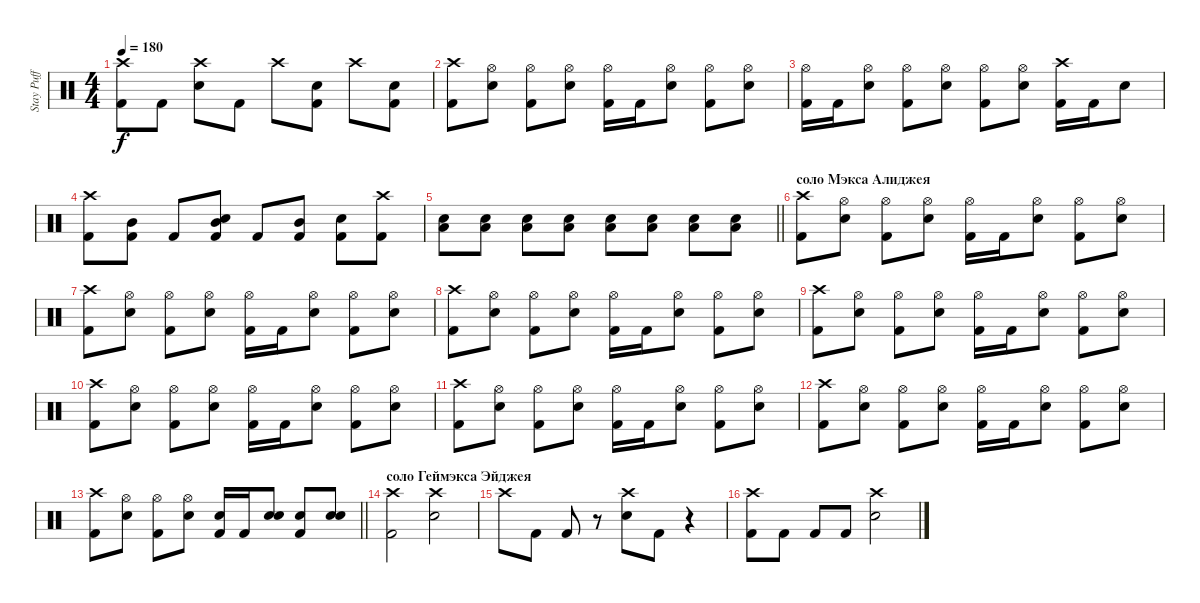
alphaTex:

\track ("Stay Puff" "Stay Puff") {instrument percussion}
\staff {score}
\articulation defaults
\ts (4 4)
\tempo 180
\clef neutral
\ks c
("Crash high (hit)" "Kick (hit) 2").8{dy f} "Kick (hit) 2".8 ("Crash high (hit)" "Snare (hit) 2").8 "Kick (hit) 2".8 "Crash high (hit)".8 ("Snare (hit) 2" "Kick (hit) 2").8 "Crash high (hit)".8 ("Snare (hit) 2" "Kick (hit) 2").8 |
("Crash high (hit)" "Kick (hit) 2").8 ("Hi-Hat (open)" "Snare (hit) 2").8 ("Hi-Hat (open)" "Kick (hit) 2").8 ("Hi-Hat (open)" "Snare (hit) 2").8 ("Hi-Hat (open)" "Kick (hit) 2").16 "Kick (hit) 2".16 ("Hi-Hat (open)" "Snare (hit) 2").8 ("Hi-Hat (open)" "Kick (hit) 2").8 ("Hi-Hat (open)" "Snare (hit) 2").8 |
("Hi-Hat (open)" "Kick (hit) 2").16 "Kick (hit) 2".16 ("Hi-Hat (open)" "Snare (hit) 2").8 ("Hi-Hat (open)" "Kick (hit) 2").8 ("Hi-Hat (open)" "Snare (hit) 2").8 ("Hi-Hat (open)" "Kick (hit) 2").8 ("Hi-Hat (open)" "Snare (hit) 2").8 ("Crash high (hit)" "Kick (hit) 2").16 "Kick (hit) 2".16 "Snare (hit) 2".8 |
("Crash high (hit)" "Kick (hit) 2").8 ("Mid Tom (hit)" "Kick (hit) 2").8 "Kick (hit) 2".8 ("Mid Tom (hit)" "Snare (hit) 2" "Kick (hit) 2").8 "Kick (hit) 2".8 ("Mid Tom (hit)" "Kick (hit) 2").8 ("Snare (hit) 2" "Kick (hit) 2").8 ("Crash high (hit)" "Kick (hit) 2").8 |
\barLineRight lightlight
("Electric Snare (hit)" "Low Tom (hit)").8 ("Electric Snare (hit)" "Low Tom (hit)").8 ("Electric Snare (hit)" "Low Tom (hit)").8 ("Electric Snare (hit)" "Low Tom (hit)").8 ("Electric Snare (hit)" "Low Tom (hit)").8 ("Electric Snare (hit)" "Low Tom (hit)").8 ("Electric Snare (hit)" "Low Tom (hit)").8 ("Electric Snare (hit)" "Low Tom (hit)").8 |
\section ("" "соло Мэкса Алиджея")
("Crash high (hit)" "Kick (hit) 2").8 ("Hi-Hat (open)" "Snare (hit) 2").8 ("Hi-Hat (open)" "Kick (hit) 2").8 ("Hi-Hat (open)" "Snare (hit) 2").8 ("Hi-Hat (open)" "Kick (hit) 2").16 "Kick (hit) 2".16 ("Hi-Hat (open)" "Snare (hit) 2").8 ("Hi-Hat (open)" "Kick (hit) 2").8 ("Hi-Hat (open)" "Snare (hit) 2").8 |
("Crash high (hit)" "Kick (hit) 2").8 ("Hi-Hat (open)" "Snare (hit) 2").8 ("Hi-Hat (open)" "Kick (hit) 2").8 ("Hi-Hat (open)" "Snare (hit) 2").8 ("Hi-Hat (open)" "Kick (hit) 2").16 "Kick (hit) 2".16 ("Hi-Hat (open)" "Snare (hit) 2").8 ("Hi-Hat (open)" "Kick (hit) 2").8 ("Hi-Hat (open)" "Snare (hit) 2").8 |
("Crash high (hit)" "Kick (hit) 2").8 ("Hi-Hat (open)" "Snare (hit) 2").8 ("Hi-Hat (open)" "Kick (hit) 2").8 ("Hi-Hat (open)" "Snare (hit) 2").8 ("Hi-Hat (open)" "Kick (hit) 2").16 "Kick (hit) 2".16 ("Hi-Hat (open)" "Snare (hit) 2").8 ("Hi-Hat (open)" "Kick (hit) 2").8 ("Hi-Hat (open)" "Snare (hit) 2").8 |
("Crash high (hit)" "Kick (hit) 2").8 ("Hi-Hat (open)" "Snare (hit) 2").8 ("Hi-Hat (open)" "Kick (hit) 2").8 ("Hi-Hat (open)" "Snare (hit) 2").8 ("Hi-Hat (open)" "Kick (hit) 2").16 "Kick (hit) 2".16 ("Hi-Hat (open)" "Snare (hit) 2").8 ("Hi-Hat (open)" "Kick (hit) 2").8 ("Hi-Hat (open)" "Snare (hit) 2").8 |
("Crash high (hit)" "Kick (hit) 2").8 ("Hi-Hat (open)" "Snare (hit) 2").8 ("Hi-Hat (open)" "Kick (hit) 2").8 ("Hi-Hat (open)" "Snare (hit) 2").8 ("Hi-Hat (open)" "Kick (hit) 2").16 "Kick (hit) 2".16 ("Hi-Hat (open)" "Snare (hit) 2").8 ("Hi-Hat (open)" "Kick (hit) 2").8 ("Hi-Hat (open)" "Snare (hit) 2").8 |
("Crash high (hit)" "Kick (hit) 2").8 ("Hi-Hat (open)" "Snare (hit) 2").8 ("Hi-Hat (open)" "Kick (hit) 2").8 ("Hi-Hat (open)" "Snare (hit) 2").8 ("Hi-Hat (open)" "Kick (hit) 2").16 "Kick (hit) 2".16 ("Hi-Hat (open)" "Snare (hit) 2").8 ("Hi-Hat (open)" "Kick (hit) 2").8 ("Hi-Hat (open)" "Snare (hit) 2").8 |
("Crash high (hit)" "Kick (hit) 2").8 ("Hi-Hat (open)" "Snare (hit) 2").8 ("Hi-Hat (open)" "Kick (hit) 2").8 ("Hi-Hat (open)" "Snare (hit) 2").8 ("Hi-Hat (open)" "Kick (hit) 2").16 "Kick (hit) 2".16 ("Hi-Hat (open)" "Snare (hit) 2").8 ("Hi-Hat (open)" "Kick (hit) 2").8 ("Hi-Hat (open)" "Snare (hit) 2").8 |
\barLineRight lightlight
("Crash high (hit)" "Kick (hit) 2").8 ("Hi-Hat (open)" "Snare (hit) 2").8 ("Hi-Hat (open)" "Kick (hit) 2").8 ("Hi-Hat (open)" "Snare (hit) 2").8 ("Electric Snare (hit)" "Kick (hit) 2").16 "Kick (hit) 2".16 ("Electric Snare (hit)" "Snare (hit) 2").8 ("Electric Snare (hit)" "Kick (hit) 2").8 ("Electric Snare (hit)" "Snare (hit) 2").8 |
\section ("" "соло Геймэкса Эйджея")
("Crash high (hit)" "Kick (hit) 2").2 ("Crash high (hit)" "Snare (hit) 2").2 |
"Crash high (hit)".8 "Kick (hit) 2".8 "Kick (hit) 2".8 r.8 ("Crash high (hit)" "Snare (hit) 2").8 "Kick (hit) 2".8 r.4 |
("Crash high (hit)" "Kick (hit) 2").8 "Kick (hit) 2".8 "Kick (hit) 2".8 "Kick (hit) 2".8 ("Crash high (hit)" "Snare (hit) 2").2
